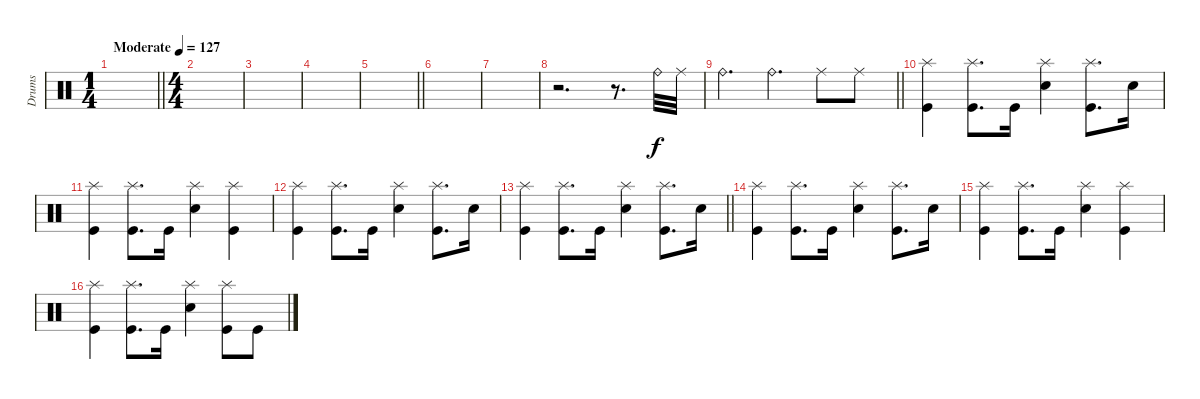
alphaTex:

\track ("Drums" "Drums") {instrument percussion}
\staff
\articulation defaults
\ts (1 4)
\tempo (127 "Moderate")
\clef neutral
\barLineRight lightlight
\ks c
|
\ts (4 4)
|
|
|
\barLineRight lightlight
|
|
|
r.2{d} r.8{d} "Ride (bell)".32 "Ride (middle)".32 |
\barLineRight lightlight "Ride (bell)".4{d} "Ride (bell)".4{d} "Ride (middle)".8 "Ride (middle)".8
|
("Splash (hit)" "Kick (hit)").4 ("Splash (hit)" "Kick (hit)").8{d} "Kick (hit)".16 ("Splash (hit)" "Electric Snare (hit)").4 ("Splash (hit)" "Kick (hit)").8{d} "Electric Snare (hit)".16 |
("Splash (hit)" "Kick (hit)").4 ("Splash (hit)" "Kick (hit)").8{d} "Kick (hit)".16 ("Splash (hit)" "Electric Snare (hit)").4 ("Splash (hit)" "Kick (hit)").4 |
("Splash (hit)" "Kick (hit)").4 ("Splash (hit)" "Kick (hit)").8{d} "Kick (hit)".16 ("Splash (hit)" "Electric Snare (hit)").4 ("Splash (hit)" "Kick (hit)").8{d} "Electric Snare (hit)".16 |
\barLineRight lightlight
("Splash (hit)" "Kick (hit)").4 ("Splash (hit)" "Kick (hit)").8{d} "Kick (hit)".16 ("Splash (hit)" "Electric Snare (hit)").4 ("Splash (hit)" "Kick (hit)").8{d} "Electric Snare (hit)".16 |
("Splash (hit)" "Kick (hit)").4 ("Splash (hit)" "Kick (hit)").8{d} "Kick (hit)".16 ("Splash (hit)" "Electric Snare (hit)").4 ("Splash (hit)" "Kick (hit)").8{d} "Electric Snare (hit)".16 |
("Splash (hit)" "Kick (hit)").4 ("Splash (hit)" "Kick (hit)").8{d} "Kick (hit)".16 ("Splash (hit)" "Electric Snare (hit)").4 ("Splash (hit)" "Kick (hit)").4 |
("Splash (hit)" "Kick (hit)").4 ("Splash (hit)" "Kick (hit)").8{d} "Kick (hit)".16 ("Splash (hit)" "Electric Snare (hit)").4 ("Splash (hit)" "Kick (hit)").8 "Kick (hit)".8
